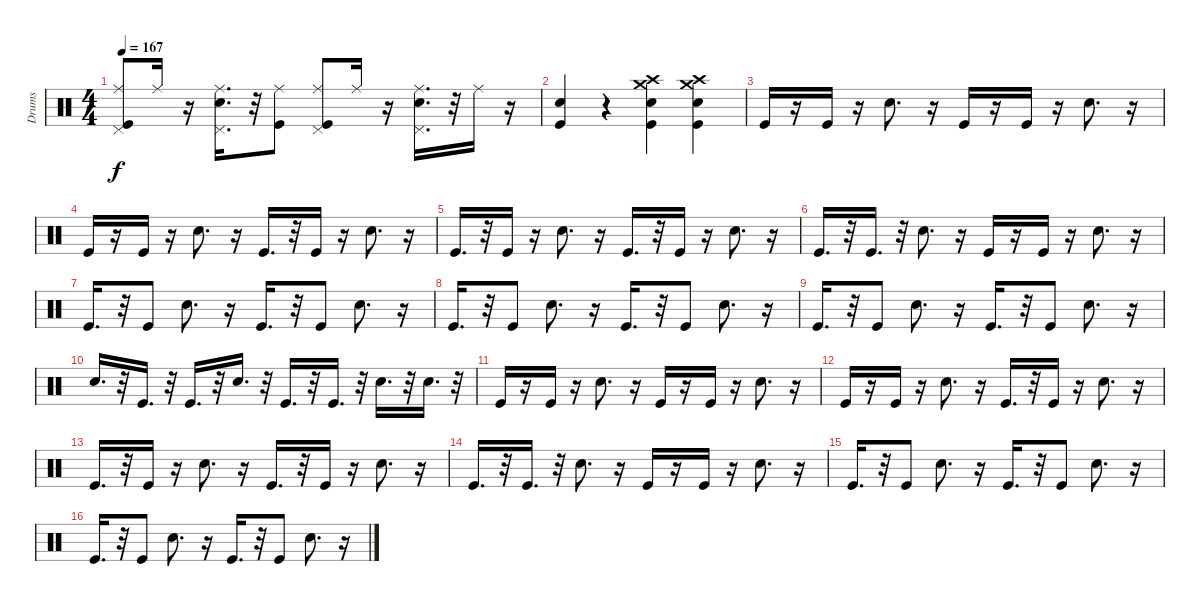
\track ("Drums" "Drums") {instrument percussion}
\staff {score}
\articulation defaults
\ts (4 4)
\tempo 167
\clef neutral
\ks c
("Ride (middle)" "Kick (hit)" "Pedal Hi-Hat (hit)").8{dy f} "Ride (middle)".16 r.16 ("Pedal Hi-Hat (hit)" "Ride (middle)" "Electric Snare (hit)").16{d} r.32 ("Kick (hit)" "Ride (middle)").8 ("Pedal Hi-Hat (hit)" "Ride (middle)" "Kick (hit)").8 "Ride (middle)".16 r.16 ("Pedal Hi-Hat (hit)" "Electric Snare (hit)" "Ride (middle)").16{d} r.32 "Ride (middle)".16 r.16 |
("Kick (hit)" "Electric Snare (hit)").4 r.4 ("Crash high (hit)" "Kick (hit)" "Crash medium (hit)" "Electric Snare (hit)").4 ("Crash medium (hit)" "Electric Snare (hit)" "Crash high (hit)" "Kick (hit)").4 |
"Kick (hit)".16 r.16 "Kick (hit)".16 r.16 "Electric Snare (hit)".8{d} r.16 "Kick (hit)".16 r.16 "Kick (hit)".16 r.16 "Electric Snare (hit)".8{d} r.16 |
"Kick (hit)".16 r.16 "Kick (hit)".16 r.16 "Electric Snare (hit)".8{d} r.16 "Kick (hit)".16{d} r.32 "Kick (hit)".16 r.16 "Electric Snare (hit)".8{d} r.16 |
"Kick (hit)".16{d} r.32 "Kick (hit)".16 r.16 "Electric Snare (hit)".8{d} r.16 "Kick (hit)".16{d} r.32 "Kick (hit)".16 r.16 "Electric Snare (hit)".8{d} r.16 |
"Kick (hit)".16{d} r.32 "Kick (hit)".16{d} r.32 "Electric Snare (hit)".8{d} r.16 "Kick (hit)".16 r.16 "Kick (hit)".16 r.16 "Electric Snare (hit)".8{d} r.16 |
"Kick (hit)".16{d} r.32 "Kick (hit)".8 "Electric Snare (hit)".8{d} r.16 "Kick (hit)".16{d} r.32 "Kick (hit)".8 "Electric Snare (hit)".8{d} r.16 |
"Kick (hit)".16{d} r.32 "Kick (hit)".8 "Electric Snare (hit)".8{d} r.16 "Kick (hit)".16{d} r.32 "Kick (hit)".8 "Electric Snare (hit)".8{d} r.16 |
"Kick (hit)".16{d} r.32 "Kick (hit)".8 "Electric Snare (hit)".8{d} r.16 "Kick (hit)".16{d} r.32 "Kick (hit)".8 "Electric Snare (hit)".8{d} r.16 |
"Electric Snare (hit)".16{d} r.32 "Kick (hit)".16{d} r.32 "Kick (hit)".16{d} r.32 "Electric Snare (hit)".16{d} r.32 "Kick (hit)".16{d} r.32 "Kick (hit)".16{d} r.32 "Electric Snare (hit)".16{d} r.32 "Electric Snare (hit)".16{d} r.32 |
"Kick (hit)".16 r.16 "Kick (hit)".16 r.16 "Electric Snare (hit)".8{d} r.16 "Kick (hit)".16 r.16 "Kick (hit)".16 r.16 "Electric Snare (hit)".8{d} r.16 |
"Kick (hit)".16 r.16 "Kick (hit)".16 r.16 "Electric Snare (hit)".8{d} r.16 "Kick (hit)".16{d} r.32 "Kick (hit)".16 r.16 "Electric Snare (hit)".8{d} r.16 |
"Kick (hit)".16{d} r.32 "Kick (hit)".16 r.16 "Electric Snare (hit)".8{d} r.16 "Kick (hit)".16{d} r.32 "Kick (hit)".16 r.16 "Electric Snare (hit)".8{d} r.16 |
"Kick (hit)".16{d} r.32 "Kick (hit)".16{d} r.32 "Electric Snare (hit)".8{d} r.16 "Kick (hit)".16 r.16 "Kick (hit)".16 r.16 "Electric Snare (hit)".8{d} r.16 |
"Kick (hit)".16{d} r.32 "Kick (hit)".8 "Electric Snare (hit)".8{d} r.16 "Kick (hit)".16{d} r.32 "Kick (hit)".8 "Electric Snare (hit)".8{d} r.16 |
"Kick (hit)".16{d} r.32 "Kick (hit)".8 "Electric Snare (hit)".8{d} r.16 "Kick (hit)".16{d} r.32 "Kick (hit)".8 "Electric Snare (hit)".8{d} r.16
